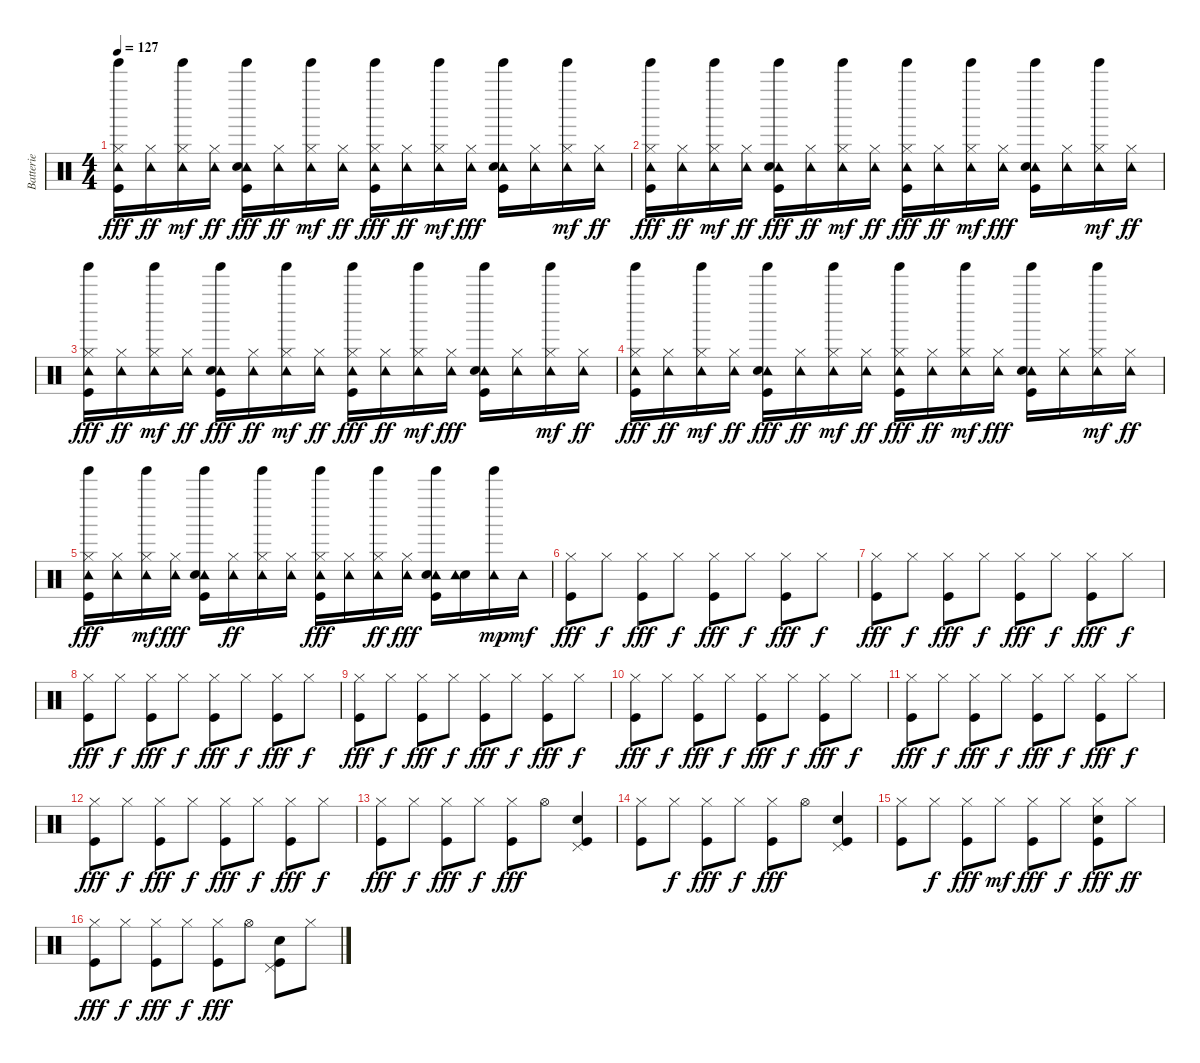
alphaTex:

\track ("Batterie" "Batterie") {instrument percussion}
\staff {score}
\articulation defaults
\ts (4 4)
\tempo 127
\clef neutral
\ks c
("Hi-Hat (closed)" "Tambourine (hit)" "Tinkle Bell (hit)" "Kick (hit)").16{dy fff} ("Tambourine (hit)" "Hi-Hat (closed)").16{dy ff} ("Hi-Hat (closed)" "Tambourine (hit)" "Tinkle Bell (hit)").16{dy mf} ("Tambourine (hit)" "Hi-Hat (closed)").16{dy ff} ("Tambourine (hit)" "Kick (hit)" "Snare (hit) 2" "Tinkle Bell (hit)").16{dy fff} ("Tambourine (hit)" "Hi-Hat (closed)").16{dy ff} ("Tinkle Bell (hit)" "Tambourine (hit)" "Hi-Hat (closed)").16{dy mf} ("Tambourine (hit)" "Hi-Hat (closed)").16{dy ff} ("Tinkle Bell (hit)" "Hi-Hat (closed)" "Tambourine (hit)" "Kick (hit)").16{dy fff} ("Tambourine (hit)" "Hi-Hat (closed)").16{dy ff} ("Hi-Hat (closed)" "Tinkle Bell (hit)" "Tambourine (hit)").16{dy mf} ("Tambourine (hit)" "Hi-Hat (closed)").16{dy fff} ("Tinkle Bell (hit)" "Tambourine (hit)" "Kick (hit)" "Snare (hit) 2").16 ("Tambourine (hit)" "Hi-Hat (closed)").16 ("Tambourine (hit)" "Tinkle Bell (hit)" "Hi-Hat (closed)").16{dy mf} ("Tambourine (hit)" "Hi-Hat (closed)").16{dy ff} |
("Hi-Hat (closed)" "Tambourine (hit)" "Tinkle Bell (hit)" "Kick (hit)").16{dy fff} ("Tambourine (hit)" "Hi-Hat (closed)").16{dy ff} ("Hi-Hat (closed)" "Tambourine (hit)" "Tinkle Bell (hit)").16{dy mf} ("Tambourine (hit)" "Hi-Hat (closed)").16{dy ff} ("Tambourine (hit)" "Kick (hit)" "Snare (hit) 2" "Tinkle Bell (hit)").16{dy fff} ("Tambourine (hit)" "Hi-Hat (closed)").16{dy ff} ("Tinkle Bell (hit)" "Tambourine (hit)" "Hi-Hat (closed)").16{dy mf} ("Tambourine (hit)" "Hi-Hat (closed)").16{dy ff} ("Tinkle Bell (hit)" "Hi-Hat (closed)" "Tambourine (hit)" "Kick (hit)").16{dy fff} ("Tambourine (hit)" "Hi-Hat (closed)").16{dy ff} ("Hi-Hat (closed)" "Tinkle Bell (hit)" "Tambourine (hit)").16{dy mf} ("Tambourine (hit)" "Hi-Hat (closed)").16{dy fff} ("Tinkle Bell (hit)" "Tambourine (hit)" "Kick (hit)" "Snare (hit) 2").16 ("Tambourine (hit)" "Hi-Hat (closed)").16 ("Tambourine (hit)" "Tinkle Bell (hit)" "Hi-Hat (closed)").16{dy mf} ("Tambourine (hit)" "Hi-Hat (closed)").16{dy ff} |
("Hi-Hat (closed)" "Tambourine (hit)" "Tinkle Bell (hit)" "Kick (hit)").16{dy fff} ("Tambourine (hit)" "Hi-Hat (closed)").16{dy ff} ("Hi-Hat (closed)" "Tambourine (hit)" "Tinkle Bell (hit)").16{dy mf} ("Tambourine (hit)" "Hi-Hat (closed)").16{dy ff} ("Tambourine (hit)" "Kick (hit)" "Snare (hit) 2" "Tinkle Bell (hit)").16{dy fff} ("Tambourine (hit)" "Hi-Hat (closed)").16{dy ff} ("Tinkle Bell (hit)" "Tambourine (hit)" "Hi-Hat (closed)").16{dy mf} ("Tambourine (hit)" "Hi-Hat (closed)").16{dy ff} ("Tinkle Bell (hit)" "Hi-Hat (closed)" "Tambourine (hit)" "Kick (hit)").16{dy fff} ("Tambourine (hit)" "Hi-Hat (closed)").16{dy ff} ("Hi-Hat (closed)" "Tinkle Bell (hit)" "Tambourine (hit)").16{dy mf} ("Tambourine (hit)" "Hi-Hat (closed)").16{dy fff} ("Tinkle Bell (hit)" "Tambourine (hit)" "Kick (hit)" "Snare (hit) 2").16 ("Tambourine (hit)" "Hi-Hat (closed)").16 ("Tambourine (hit)" "Tinkle Bell (hit)" "Hi-Hat (closed)").16{dy mf} ("Tambourine (hit)" "Hi-Hat (closed)").16{dy ff} |
("Hi-Hat (closed)" "Tambourine (hit)" "Tinkle Bell (hit)" "Kick (hit)").16{dy fff} ("Tambourine (hit)" "Hi-Hat (closed)").16{dy ff} ("Hi-Hat (closed)" "Tambourine (hit)" "Tinkle Bell (hit)").16{dy mf} ("Tambourine (hit)" "Hi-Hat (closed)").16{dy ff} ("Tambourine (hit)" "Kick (hit)" "Snare (hit) 2" "Tinkle Bell (hit)").16{dy fff} ("Tambourine (hit)" "Hi-Hat (closed)").16{dy ff} ("Tinkle Bell (hit)" "Tambourine (hit)" "Hi-Hat (closed)").16{dy mf} ("Tambourine (hit)" "Hi-Hat (closed)").16{dy ff} ("Tinkle Bell (hit)" "Hi-Hat (closed)" "Tambourine (hit)" "Kick (hit)").16{dy fff} ("Tambourine (hit)" "Hi-Hat (closed)").16{dy ff} ("Hi-Hat (closed)" "Tinkle Bell (hit)" "Tambourine (hit)").16{dy mf} ("Tambourine (hit)" "Hi-Hat (closed)").16{dy fff} ("Tinkle Bell (hit)" "Tambourine (hit)" "Kick (hit)" "Snare (hit) 2").16 ("Tambourine (hit)" "Hi-Hat (closed)").16 ("Tambourine (hit)" "Tinkle Bell (hit)" "Hi-Hat (closed)").16{dy mf} ("Tambourine (hit)" "Hi-Hat (closed)").16{dy ff} |
("Tambourine (hit)" "Tinkle Bell (hit)" "Kick (hit)" "Hi-Hat (closed)").16{dy fff} ("Tambourine (hit)" "Hi-Hat (closed)").16 ("Tinkle Bell (hit)" "Tambourine (hit)" "Hi-Hat (closed)").16{dy mf} ("Tambourine (hit)" "Hi-Hat (closed)").16{dy fff} ("Tambourine (hit)" "Tinkle Bell (hit)" "Kick (hit)" "Snare (hit) 2").16 ("Tambourine (hit)" "Hi-Hat (closed)").16{dy ff} ("Tinkle Bell (hit)" "Tambourine (hit)" "Hi-Hat (closed)").16 ("Tambourine (hit)" "Hi-Hat (closed)").16 ("Tinkle Bell (hit)" "Kick (hit)" "Tambourine (hit)" "Hi-Hat (closed)").16{dy fff} ("Tambourine (hit)" "Hi-Hat (closed)").16 ("Tambourine (hit)" "Tinkle Bell (hit)" "Hi-Hat (closed)").16{dy ff} ("Tambourine (hit)" "Hi-Hat (closed)").16{dy fff} ("Tambourine (hit)" "Tinkle Bell (hit)" "Snare (hit) 2" "Kick (hit)").16 ("Snare (hit) 2" "Tambourine (hit)").16 ("Tambourine (hit)" "Tinkle Bell (hit)").16{dy mp} "Tambourine (hit)".16{dy mf} |
("Kick (hit)" "Hi-Hat (closed)").8{dy fff} "Hi-Hat (closed)".8{dy f} ("Kick (hit)" "Hi-Hat (closed)").8{dy fff} "Hi-Hat (closed)".8{dy f} ("Kick (hit)" "Hi-Hat (closed)").8{dy fff} "Hi-Hat (closed)".8{dy f} ("Kick (hit)" "Hi-Hat (closed)").8{dy fff} "Hi-Hat (closed)".8{dy f} |
("Kick (hit)" "Hi-Hat (closed)").8{dy fff} "Hi-Hat (closed)".8{dy f} ("Kick (hit)" "Hi-Hat (closed)").8{dy fff} "Hi-Hat (closed)".8{dy f} ("Kick (hit)" "Hi-Hat (closed)").8{dy fff} "Hi-Hat (closed)".8{dy f} ("Kick (hit)" "Hi-Hat (closed)").8{dy fff} "Hi-Hat (closed)".8{dy f} |
("Kick (hit)" "Hi-Hat (closed)").8{dy fff} "Hi-Hat (closed)".8{dy f} ("Kick (hit)" "Hi-Hat (closed)").8{dy fff} "Hi-Hat (closed)".8{dy f} ("Kick (hit)" "Hi-Hat (closed)").8{dy fff} "Hi-Hat (closed)".8{dy f} ("Kick (hit)" "Hi-Hat (closed)").8{dy fff} "Hi-Hat (closed)".8{dy f} |
("Kick (hit)" "Hi-Hat (closed)").8{dy fff} "Hi-Hat (closed)".8{dy f} ("Kick (hit)" "Hi-Hat (closed)").8{dy fff} "Hi-Hat (closed)".8{dy f} ("Kick (hit)" "Hi-Hat (closed)").8{dy fff} "Hi-Hat (closed)".8{dy f} ("Kick (hit)" "Hi-Hat (closed)").8{dy fff} "Hi-Hat (closed)".8{dy f} |
("Kick (hit)" "Hi-Hat (closed)").8{dy fff} "Hi-Hat (closed)".8{dy f} ("Kick (hit)" "Hi-Hat (closed)").8{dy fff} "Hi-Hat (closed)".8{dy f} ("Kick (hit)" "Hi-Hat (closed)").8{dy fff} "Hi-Hat (closed)".8{dy f} ("Kick (hit)" "Hi-Hat (closed)").8{dy fff} "Hi-Hat (closed)".8{dy f} |
("Kick (hit)" "Hi-Hat (closed)").8{dy fff} "Hi-Hat (closed)".8{dy f} ("Kick (hit)" "Hi-Hat (closed)").8{dy fff} "Hi-Hat (closed)".8{dy f} ("Kick (hit)" "Hi-Hat (closed)").8{dy fff} "Hi-Hat (closed)".8{dy f} ("Kick (hit)" "Hi-Hat (closed)").8{dy fff} "Hi-Hat (closed)".8{dy f} |
("Kick (hit)" "Hi-Hat (closed)").8{dy fff} "Hi-Hat (closed)".8{dy f} ("Kick (hit)" "Hi-Hat (closed)").8{dy fff} "Hi-Hat (closed)".8{dy f} ("Kick (hit)" "Hi-Hat (closed)").8{dy fff} "Hi-Hat (closed)".8{dy f} ("Kick (hit)" "Hi-Hat (closed)").8{dy fff} "Hi-Hat (closed)".8{dy f} |
("Kick (hit)" "Hi-Hat (closed)").8{dy fff} "Hi-Hat (closed)".8{dy f} ("Kick (hit)" "Hi-Hat (closed)").8{dy fff} "Hi-Hat (closed)".8{dy f} ("Kick (hit)" "Hi-Hat (closed)").8{dy fff} "Hi-Hat (open)".8 ("Kick (hit)" "Snare (hit) 2" "Pedal Hi-Hat (hit)").4 |
("Kick (hit)" "Hi-Hat (closed)").8 "Hi-Hat (closed)".8{dy f} ("Kick (hit)" "Hi-Hat (closed)").8{dy fff} "Hi-Hat (closed)".8{dy f} ("Kick (hit)" "Hi-Hat (closed)").8{dy fff} "Hi-Hat (open)".8 ("Kick (hit)" "Snare (hit) 2" "Pedal Hi-Hat (hit)").4 |
("Kick (hit)" "Hi-Hat (closed)").8 "Hi-Hat (closed)".8{dy f} ("Kick (hit)" "Hi-Hat (closed)").8{dy fff} "Hi-Hat (closed)".8{dy mf} ("Hi-Hat (closed)" "Kick (hit)").8{dy fff} "Hi-Hat (closed)".8{dy f} ("Hi-Hat (closed)" "Snare (hit) 2" "Kick (hit)").8{dy fff} "Hi-Hat (closed)".8{dy ff} |
("Kick (hit)" "Hi-Hat (closed)").8{dy fff} "Hi-Hat (closed)".8{dy f} ("Kick (hit)" "Hi-Hat (closed)").8{dy fff} "Hi-Hat (closed)".8{dy f} ("Kick (hit)" "Hi-Hat (closed)").8{dy fff} "Hi-Hat (open)".8 ("Kick (hit)" "Snare (hit) 2" "Pedal Hi-Hat (hit)").8 "Hi-Hat (closed)".8
